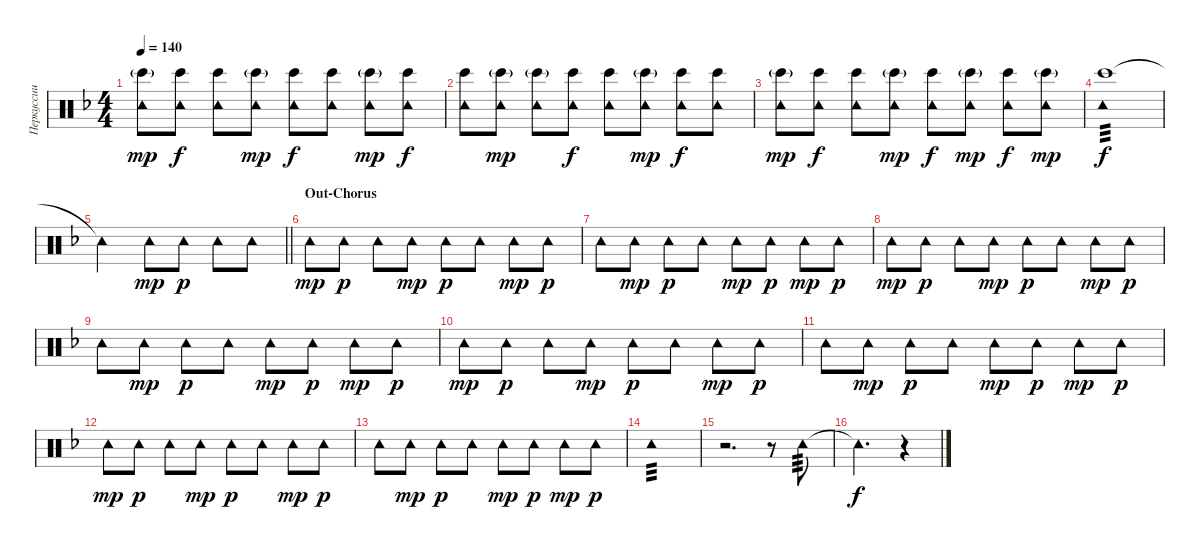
\track ("Перкуссии" "Перкуссии") {instrument percussion}
\staff {score}
\articulation defaults
\ts (4 4)
\tempo 140
\clef neutral
\ks dminor
("Bongo High (hit)"{g} "Tambourine (hit)").8{dy mp} ("Bongo High (hit)" "Tambourine (hit)").8{dy f} ("Bongo High (hit)" "Tambourine (hit)").8 ("Bongo High (hit)"{g} "Tambourine (hit)").8{dy mp} ("Bongo High (hit)" "Tambourine (hit)").8{dy f} ("Bongo High (hit)" "Tambourine (hit)").8 ("Bongo High (hit)"{g} "Tambourine (hit)").8{dy mp} ("Bongo High (hit)" "Tambourine (hit)").8{dy f} |
("Bongo High (hit)" "Tambourine (hit)").8 ("Bongo High (hit)"{g} "Tambourine (hit)").8{dy mp} ("Bongo High (hit)"{g} "Tambourine (hit)").8 ("Bongo High (hit)" "Tambourine (hit)").8{dy f} ("Bongo High (hit)" "Tambourine (hit)").8 ("Bongo High (hit)"{g} "Tambourine (hit)").8{dy mp} ("Bongo High (hit)" "Tambourine (hit)").8{dy f} ("Bongo High (hit)" "Tambourine (hit)").8 |
("Bongo High (hit)"{g} "Tambourine (hit)").8{dy mp} ("Bongo High (hit)" "Tambourine (hit)").8{dy f} ("Bongo High (hit)" "Tambourine (hit)").8 ("Bongo High (hit)"{g} "Tambourine (hit)").8{dy mp} ("Bongo High (hit)" "Tambourine (hit)").8{dy f} ("Bongo High (hit)"{g} "Tambourine (hit)").8{dy mp} ("Bongo High (hit)" "Tambourine (hit)").8{dy f} ("Bongo High (hit)"{g} "Tambourine (hit)").8{dy mp} |
("Bongo High (hit)" "Tambourine (hit)").1{tp 3 dy f} |
\barLineRight lightlight "Tambourine (hit)"{t}.2 "Tambourine (hit)".8{dy mp} "Tambourine (hit)".8{dy p} "Tambourine (hit)".8 "Tambourine (hit)".8
|
\section ("" "Out-Chorus")
"Tambourine (hit)".8{dy mp} "Tambourine (hit)".8{dy p} "Tambourine (hit)".8 "Tambourine (hit)".8{dy mp} "Tambourine (hit)".8{dy p} "Tambourine (hit)".8 "Tambourine (hit)".8{dy mp} "Tambourine (hit)".8{dy p} |
"Tambourine (hit)".8 "Tambourine (hit)".8{dy mp} "Tambourine (hit)".8{dy p} "Tambourine (hit)".8 "Tambourine (hit)".8{dy mp} "Tambourine (hit)".8{dy p} "Tambourine (hit)".8{dy mp} "Tambourine (hit)".8{dy p} |
"Tambourine (hit)".8{dy mp} "Tambourine (hit)".8{dy p} "Tambourine (hit)".8 "Tambourine (hit)".8{dy mp} "Tambourine (hit)".8{dy p} "Tambourine (hit)".8 "Tambourine (hit)".8{dy mp} "Tambourine (hit)".8{dy p} |
"Tambourine (hit)".8 "Tambourine (hit)".8{dy mp} "Tambourine (hit)".8{dy p} "Tambourine (hit)".8 "Tambourine (hit)".8{dy mp} "Tambourine (hit)".8{dy p} "Tambourine (hit)".8{dy mp} "Tambourine (hit)".8{dy p} |
"Tambourine (hit)".8{dy mp} "Tambourine (hit)".8{dy p} "Tambourine (hit)".8 "Tambourine (hit)".8{dy mp} "Tambourine (hit)".8{dy p} "Tambourine (hit)".8 "Tambourine (hit)".8{dy mp} "Tambourine (hit)".8{dy p} |
"Tambourine (hit)".8 "Tambourine (hit)".8{dy mp} "Tambourine (hit)".8{dy p} "Tambourine (hit)".8 "Tambourine (hit)".8{dy mp} "Tambourine (hit)".8{dy p} "Tambourine (hit)".8{dy mp} "Tambourine (hit)".8{dy p} |
"Tambourine (hit)".8{dy mp} "Tambourine (hit)".8{dy p} "Tambourine (hit)".8 "Tambourine (hit)".8{dy mp} "Tambourine (hit)".8{dy p} "Tambourine (hit)".8 "Tambourine (hit)".8{dy mp} "Tambourine (hit)".8{dy p} |
"Tambourine (hit)".8 "Tambourine (hit)".8{dy mp} "Tambourine (hit)".8{dy p} "Tambourine (hit)".8 "Tambourine (hit)".8{dy mp} "Tambourine (hit)".8{dy p} "Tambourine (hit)".8{dy mp} "Tambourine (hit)".8{dy p} |
"Tambourine (hit)".1{tp 3} |
r.2{d} r.8 "Tambourine (hit)".8{tp 3} |
"Tambourine (hit)"{t}.2{d dy f} r.4
